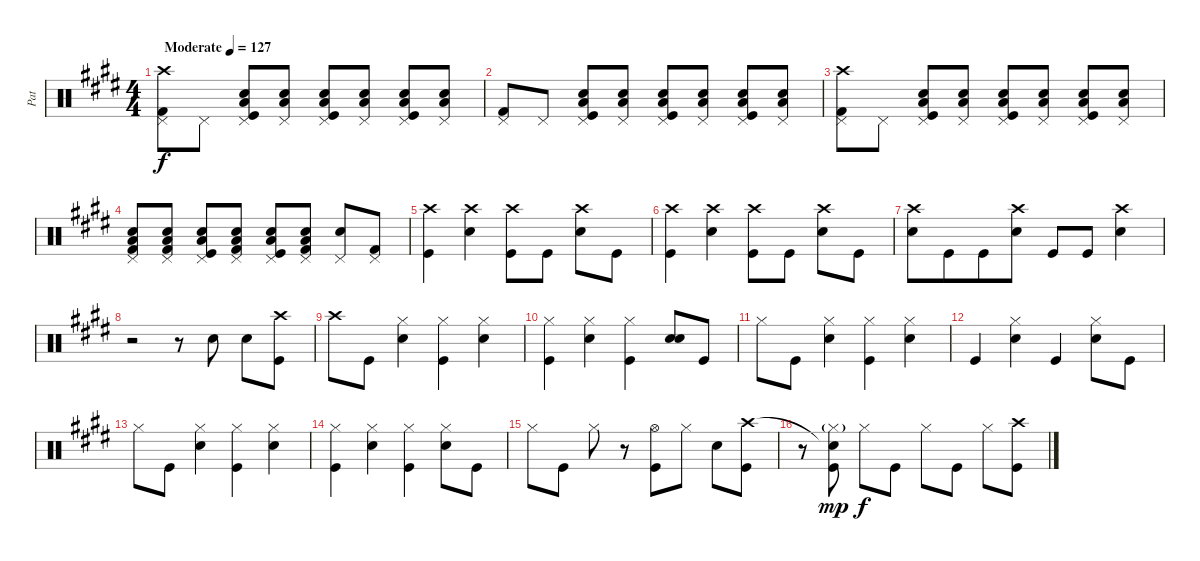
\track ("Pat" "Pat") {instrument percussion}
\staff {score}
\articulation defaults
\ts (4 4)
\tempo (127 "Moderate")
\clef neutral
\ks e
("Crash high (hit)" "Kick (hit) 2" "Pedal Hi-Hat (hit)").8{dy f} "Pedal Hi-Hat (hit)".8 ("Kick (hit)" "Low Tom (hit)" "Snare (hit) 2" "Pedal Hi-Hat (hit)").8 ("Low Tom (hit)" "Snare (hit) 2" "Pedal Hi-Hat (hit)").8 ("Kick (hit)" "Low Tom (hit)" "Snare (hit) 2" "Pedal Hi-Hat (hit)").8 ("Low Tom (hit)" "Snare (hit) 2" "Pedal Hi-Hat (hit)").8 ("Kick (hit)" "Low Tom (hit)" "Snare (hit) 2" "Pedal Hi-Hat (hit)").8 ("Low Tom (hit)" "Snare (hit) 2" "Pedal Hi-Hat (hit)").8 |
("Kick (hit) 2" "Pedal Hi-Hat (hit)").8 "Pedal Hi-Hat (hit)".8 ("Kick (hit)" "Low Tom (hit)" "Snare (hit) 2" "Pedal Hi-Hat (hit)").8 ("Low Tom (hit)" "Snare (hit) 2" "Pedal Hi-Hat (hit)").8 ("Kick (hit)" "Low Tom (hit)" "Snare (hit) 2" "Pedal Hi-Hat (hit)").8 ("Low Tom (hit)" "Snare (hit) 2" "Pedal Hi-Hat (hit)").8 ("Kick (hit)" "Low Tom (hit)" "Snare (hit) 2" "Pedal Hi-Hat (hit)").8 ("Low Tom (hit)" "Snare (hit) 2" "Pedal Hi-Hat (hit)").8 |
("Crash high (hit)" "Kick (hit) 2" "Pedal Hi-Hat (hit)").8 "Pedal Hi-Hat (hit)".8 ("Kick (hit)" "Low Tom (hit)" "Snare (hit) 2" "Pedal Hi-Hat (hit)").8 ("Low Tom (hit)" "Snare (hit) 2" "Pedal Hi-Hat (hit)").8 ("Kick (hit)" "Low Tom (hit)" "Snare (hit) 2" "Pedal Hi-Hat (hit)").8 ("Low Tom (hit)" "Snare (hit) 2" "Pedal Hi-Hat (hit)").8 ("Kick (hit)" "Low Tom (hit)" "Snare (hit) 2" "Pedal Hi-Hat (hit)").8 ("Low Tom (hit)" "Snare (hit) 2" "Pedal Hi-Hat (hit)").8 |
("Snare (hit) 2" "Low Tom (hit)" "Kick (hit) 2" "Pedal Hi-Hat (hit)").8 ("Snare (hit) 2" "Low Tom (hit)" "Kick (hit) 2" "Pedal Hi-Hat (hit)").8 ("Kick (hit)" "Low Tom (hit)" "Snare (hit) 2" "Pedal Hi-Hat (hit)").8 ("Kick (hit) 2" "Low Tom (hit)" "Snare (hit) 2" "Pedal Hi-Hat (hit)").8 ("Kick (hit)" "Low Tom (hit)" "Snare (hit) 2" "Pedal Hi-Hat (hit)").8 ("Kick (hit) 2" "Low Tom (hit)" "Snare (hit) 2" "Pedal Hi-Hat (hit)").8 ("Snare (hit) 2" "Pedal Hi-Hat (hit)").8 ("Kick (hit) 2" "Pedal Hi-Hat (hit)").8 |
("Crash high (hit)" "Kick (hit)").4 ("Snare (hit) 2" "Crash high (hit)").4 ("Crash high (hit)" "Kick (hit)").8 "Kick (hit)".8 ("Crash high (hit)" "Snare (hit) 2").8 "Kick (hit)".8 |
("Crash high (hit)" "Kick (hit)").4 ("Snare (hit) 2" "Crash high (hit)").4 ("Crash high (hit)" "Kick (hit)").8 "Kick (hit)".8 ("Snare (hit) 2" "Crash high (hit)").8 "Kick (hit)".8 |
("Snare (hit) 2" "Crash high (hit)").8 "Kick (hit)".8{beam merge} "Kick (hit)".8 ("Snare (hit) 2" "Crash high (hit)").8 "Kick (hit)".8 "Kick (hit)".8 ("Snare (hit) 2" "Crash high (hit)").4 |
r.2 r.8 "Snare (hit) 2".8 "Snare (hit) 2".8 ("Crash high (hit)" "Kick (hit)").8 |
"Crash high (hit)".8 "Kick (hit)".8 ("Hi-Hat (closed)" "Snare (hit) 2").4 ("Hi-Hat (closed)" "Kick (hit)").4 ("Hi-Hat (closed)" "Snare (hit) 2").4 |
("Kick (hit)" "Hi-Hat (closed)").4 ("Snare (hit) 2" "Hi-Hat (closed)").4 ("Kick (hit)" "Hi-Hat (closed)").4 ("Snare (hit)" "Snare (hit) 2").8 "Kick (hit)".8 |
"Hi-Hat (closed)".8 "Kick (hit)".8 ("Hi-Hat (closed)" "Snare (hit) 2").4 ("Hi-Hat (closed)" "Kick (hit)").4 ("Hi-Hat (closed)" "Snare (hit) 2").4 |
"Kick (hit)".4 ("Hi-Hat (closed)" "Snare (hit) 2").4 "Kick (hit)".4 ("Hi-Hat (closed)" "Snare (hit) 2").8 "Kick (hit)".8 |
"Hi-Hat (closed)".8 "Kick (hit)".8 ("Hi-Hat (closed)" "Snare (hit) 2").4 ("Kick (hit)" "Hi-Hat (closed)").4 ("Hi-Hat (closed)" "Snare (hit) 2").4 |
("Kick (hit)" "Hi-Hat (closed)").4 ("Snare (hit) 2" "Hi-Hat (closed)").4 ("Kick (hit)" "Hi-Hat (closed)").4 ("Snare (hit) 2" "Hi-Hat (closed)").8 "Kick (hit)".8 |
"Hi-Hat (closed)".8 "Kick (hit)".8 "Hi-Hat (closed)".8 r.8 ("Kick (hit)" "Hi-Hat (open)").8 "Hi-Hat (closed)".8 "Snare (hit) 2".8 ("Crash high (hit)" "Kick (hit)").8 |
r.8 ("Snare (hit)"{t} "Kick (hit)" "Hi-Hat (closed)"{g}).8{dy mp} "Hi-Hat (closed)".8{dy f} "Kick (hit)".8 "Hi-Hat (closed)".8 "Kick (hit)".8 "Hi-Hat (closed)".8 ("Kick (hit)" "Crash high (hit)").8
